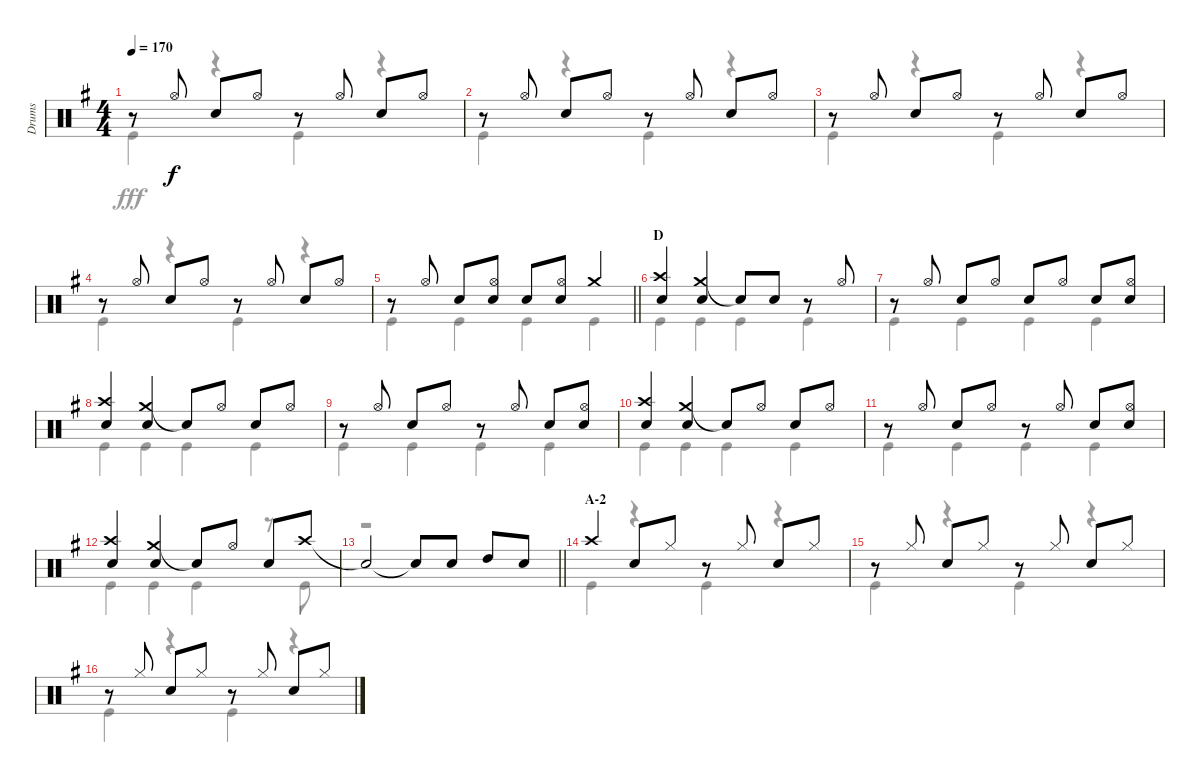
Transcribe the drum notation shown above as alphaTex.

\track ("Drums" "Drums") {instrument percussion}
\staff {score}
\articulation defaults
\voice
\ts (4 4)
\tempo 170
\clef neutral
\ks g
r.8{dy f} "Hi-Hat (open)".8 "Snare (hit) 2".8 "Hi-Hat (open)".8 r.8 "Hi-Hat (open)".8 "Snare (hit) 2".8 "Hi-Hat (open)".8 |
r.8 "Hi-Hat (open)".8 "Snare (hit) 2".8 "Hi-Hat (open)".8 r.8 "Hi-Hat (open)".8 "Snare (hit) 2".8 "Hi-Hat (open)".8 |
r.8 "Hi-Hat (open)".8 "Snare (hit) 2".8 "Hi-Hat (open)".8 r.8 "Hi-Hat (open)".8 "Snare (hit) 2".8 "Hi-Hat (open)".8 |
r.8 "Hi-Hat (open)".8 "Snare (hit) 2".8 "Hi-Hat (open)".8 r.8 "Hi-Hat (open)".8 "Snare (hit) 2".8 "Hi-Hat (open)".8 |
\barLineRight lightlight
r.8 "Hi-Hat (open)".8 "Snare (hit) 2".8 ("Hi-Hat (open)" "Snare (hit) 2").8 "Snare (hit) 2".8 ("Hi-Hat (open)" "Snare (hit) 2").8 "Crash medium (hit)".4 |
\section ("" "D")
("Crash high (hit)" "Snare (hit) 2").4 ("Crash medium (hit)" "Snare (hit) 2").4 "Snare (hit)"{t}.8 "Snare (hit) 2".8 r.8 "Hi-Hat (open)".8 |
r.8 "Hi-Hat (open)".8 "Snare (hit) 2".8 "Hi-Hat (open)".8 "Snare (hit) 2".8 "Hi-Hat (open)".8 "Snare (hit) 2".8 ("Hi-Hat (open)" "Snare (hit) 2").8 |
("Crash high (hit)" "Snare (hit) 2").4 ("Crash medium (hit)" "Snare (hit) 2").4 "Snare (hit)"{t}.8 "Hi-Hat (open)".8 "Snare (hit) 2".8 "Hi-Hat (open)".8 |
r.8 "Hi-Hat (open)".8 "Snare (hit) 2".8 "Hi-Hat (open)".8 r.8 "Hi-Hat (open)".8 "Snare (hit) 2".8 ("Hi-Hat (open)" "Snare (hit) 2").8 |
("Crash high (hit)" "Snare (hit) 2").4 ("Crash medium (hit)" "Snare (hit) 2").4 "Snare (hit)"{t}.8 "Hi-Hat (open)".8 "Snare (hit) 2".8 "Hi-Hat (open)".8 |
r.8 "Hi-Hat (open)".8 "Snare (hit) 2".8 "Hi-Hat (open)".8 r.8 "Hi-Hat (open)".8 "Snare (hit) 2".8 ("Hi-Hat (open)" "Snare (hit) 2").8 |
("Crash high (hit)" "Snare (hit) 2").4 ("Crash medium (hit)" "Snare (hit) 2").4 "Snare (hit)"{t}.8 "Hi-Hat (open)".8 "Snare (hit) 2".8 "Crash high (hit)".8 |
\barLineRight lightlight "Snare (hit)"{t}.2 "Snare (hit)"{t}.8 "Snare (hit) 2".8 "High Tom (hit)".8 "Snare (hit) 2".8
|
\section ("" "A-2")
"Crash high (hit)".4 "Snare (hit) 2".8 "Hi-Hat (closed)".8 r.8 "Hi-Hat (closed)".8 "Snare (hit) 2".8 "Hi-Hat (closed)".8 |
r.8 "Hi-Hat (closed)".8 "Snare (hit) 2".8 "Hi-Hat (closed)".8 r.8 "Hi-Hat (closed)".8 "Snare (hit) 2".8 "Hi-Hat (closed)".8 |
r.8 "Hi-Hat (closed)".8 "Snare (hit) 2".8 "Hi-Hat (closed)".8 r.8 "Hi-Hat (closed)".8 "Snare (hit) 2".8 "Hi-Hat (closed)".8
\voice
\clef neutral
\ottava regular
\simile none
\ks g "Kick (hit)".4{dy fff}
r.4 "Kick (hit)".4 r.4 |
"Kick (hit)".4 r.4 "Kick (hit)".4 r.4 |
"Kick (hit)".4 r.4 "Kick (hit)".4 r.4 |
"Kick (hit)".4 r.4 "Kick (hit)".4 r.4 |
\barLineRight lightlight "Kick (hit)".4 "Kick (hit)".4 "Kick (hit)".4 "Kick (hit)".4
|
"Kick (hit)".4 "Kick (hit)".4 "Kick (hit)".4 "Kick (hit)".4 |
"Kick (hit)".4 "Kick (hit)".4 "Kick (hit)".4 "Kick (hit)".4 |
"Kick (hit)".4 "Kick (hit)".4 "Kick (hit)".4 "Kick (hit)".4 |
"Kick (hit)".4 "Kick (hit)".4 "Kick (hit)".4 "Kick (hit)".4 |
"Kick (hit)".4 "Kick (hit)".4 "Kick (hit)".4 "Kick (hit)".4 |
"Kick (hit)".4 "Kick (hit)".4 "Kick (hit)".4 "Kick (hit)".4 |
"Kick (hit)".4 "Kick (hit)".4 "Kick (hit)".4 r.8 "Kick (hit)".8 |
\barLineRight lightlight
r.1 |
"Kick (hit)".4 r.4 "Kick (hit)".4 r.4 |
"Kick (hit)".4 r.4 "Kick (hit)".4 r.4 |
"Kick (hit)".4 r.4 "Kick (hit)".4 r.4
